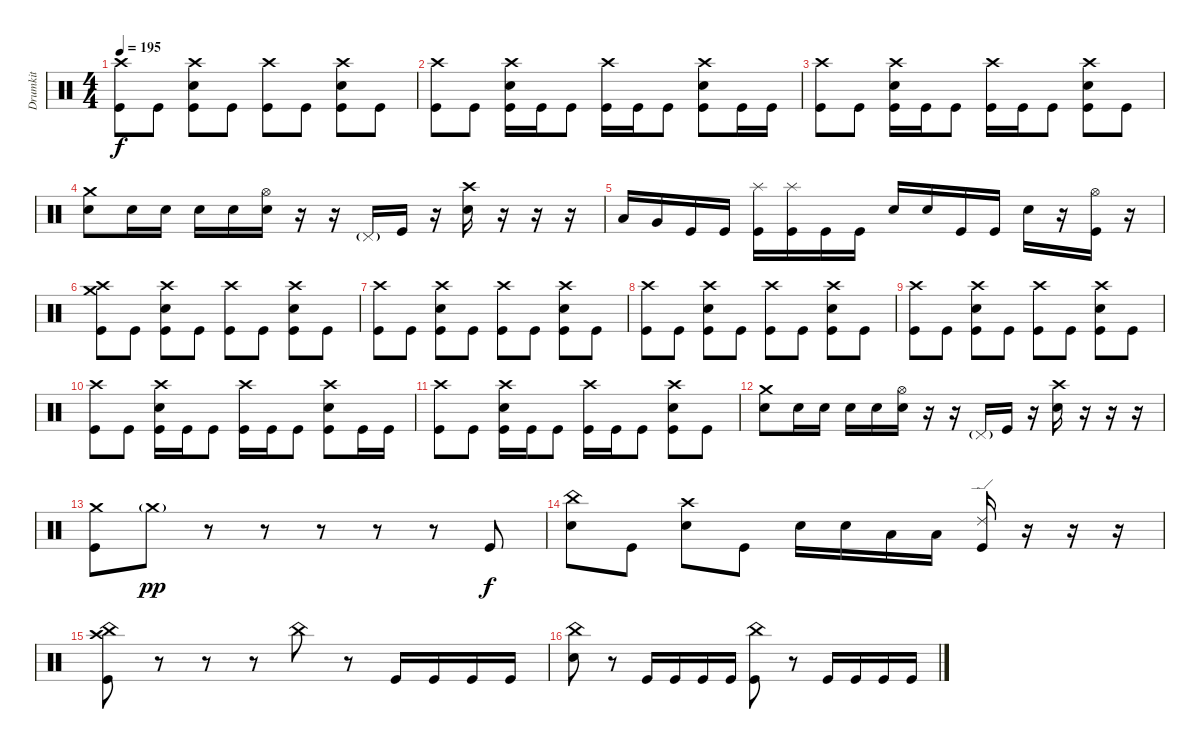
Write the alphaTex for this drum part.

\track ("Drumkit" "Drumkit") {instrument percussion}
\staff {score}
\articulation defaults
\ts (4 4)
\tempo 195
\clef neutral
\ks c
("Crash high (hit)" "Kick (hit)").8{dy f} "Kick (hit)".8 ("Crash high (hit)" "Snare (hit) 2" "Kick (hit)").8 "Kick (hit)".8 ("Crash high (hit)" "Kick (hit)").8 "Kick (hit)".8 ("Crash high (hit)" "Snare (hit) 2" "Kick (hit)").8 "Kick (hit)".8 |
("Crash high (hit)" "Kick (hit)").8 "Kick (hit)".8 ("Crash high (hit)" "Snare (hit) 2" "Kick (hit)").16 "Kick (hit)".16 "Kick (hit)".8 ("Crash high (hit)" "Kick (hit)").16 "Kick (hit)".16 "Kick (hit)".8 ("Crash high (hit)" "Snare (hit) 2" "Kick (hit)").8 "Kick (hit)".16 "Kick (hit)".16 |
("Crash high (hit)" "Kick (hit)").8 "Kick (hit)".8 ("Crash high (hit)" "Snare (hit) 2" "Kick (hit)").16 "Kick (hit)".16 "Kick (hit)".8 ("Crash high (hit)" "Kick (hit)").16 "Kick (hit)".16 "Kick (hit)".8 ("Crash high (hit)" "Snare (hit) 2" "Kick (hit)").8 "Kick (hit)".8 |
("Crash medium (hit)" "Snare (hit) 2").8 "Snare (hit) 2".16 "Snare (hit) 2".16 "Snare (hit) 2".16 "Snare (hit) 2".16 ("Hi-Hat (open)" "Snare (hit) 2").16 r.16 r.16 "Pedal Hi-Hat (hit)"{g}.16 "Kick (hit)".16 r.16 ("Crash high (hit)" "Snare (hit) 2").16 r.16 r.16 r.16 |
"Low Tom (hit)".16 "Very Low Tom (hit)".16 "Kick (hit)".16 "Kick (hit)".16 ("Splash (hit)" "Kick (hit)").16 ("Splash (hit)" "Kick (hit)").16 "Kick (hit)".16 "Kick (hit)".16 "Snare (hit) 2".16 "Snare (hit) 2".16 "Kick (hit)".16 "Kick (hit)".16 "Snare (hit) 2".16 r.16 ("Hi-Hat (open)" "Kick (hit)").16 r.16 |
("Crash medium (hit)" "Crash high (hit)" "Kick (hit)").8 "Kick (hit)".8 ("Crash high (hit)" "Snare (hit) 2" "Kick (hit)").8 "Kick (hit)".8 ("Crash high (hit)" "Kick (hit)").8 "Kick (hit)".8 ("Crash high (hit)" "Snare (hit) 2" "Kick (hit)").8 "Kick (hit)".8 |
("Crash high (hit)" "Kick (hit)").8 "Kick (hit)".8 ("Crash high (hit)" "Snare (hit) 2" "Kick (hit)").8 "Kick (hit)".8 ("Crash high (hit)" "Kick (hit)").8 "Kick (hit)".8 ("Crash high (hit)" "Snare (hit) 2" "Kick (hit)").8 "Kick (hit)".8 |
("Crash high (hit)" "Kick (hit)").8 "Kick (hit)".8 ("Crash high (hit)" "Snare (hit) 2" "Kick (hit)").8 "Kick (hit)".8 ("Crash high (hit)" "Kick (hit)").8 "Kick (hit)".8 ("Crash high (hit)" "Snare (hit) 2" "Kick (hit)").8 "Kick (hit)".8 |
("Crash high (hit)" "Kick (hit)").8 "Kick (hit)".8 ("Crash high (hit)" "Snare (hit) 2" "Kick (hit)").8 "Kick (hit)".8 ("Crash high (hit)" "Kick (hit)").8 "Kick (hit)".8 ("Crash high (hit)" "Snare (hit) 2" "Kick (hit)").8 "Kick (hit)".8 |
("Crash high (hit)" "Kick (hit)").8 "Kick (hit)".8 ("Crash high (hit)" "Snare (hit) 2" "Kick (hit)").16 "Kick (hit)".16 "Kick (hit)".8 ("Crash high (hit)" "Kick (hit)").16 "Kick (hit)".16 "Kick (hit)".8 ("Crash high (hit)" "Snare (hit) 2" "Kick (hit)").8 "Kick (hit)".16 "Kick (hit)".16 |
("Crash high (hit)" "Kick (hit)").8 "Kick (hit)".8 ("Crash high (hit)" "Snare (hit) 2" "Kick (hit)").16 "Kick (hit)".16 "Kick (hit)".8 ("Crash high (hit)" "Kick (hit)").16 "Kick (hit)".16 "Kick (hit)".8 ("Crash high (hit)" "Snare (hit) 2" "Kick (hit)").8 "Kick (hit)".8 |
("Crash medium (hit)" "Snare (hit) 2").8 "Snare (hit) 2".16 "Snare (hit) 2".16 "Snare (hit) 2".16 "Snare (hit) 2".16 ("Hi-Hat (open)" "Snare (hit) 2").16 r.16 r.16 "Pedal Hi-Hat (hit)"{g}.16 "Kick (hit)".16 r.16 ("Crash high (hit)" "Snare (hit) 2").16 r.16 r.16 r.16 |
("Crash medium (hit)" "Kick (hit)").8 "Crash medium (hit)"{g}.8{dy pp} r.8 r.8 r.8 r.8 r.8 "Kick (hit)".8{dy f} |
("China (hit)" "Snare (hit) 2").8 "Kick (hit)".8 ("Crash high (hit)" "Snare (hit) 2").8 "Kick (hit)".8 "Snare (hit) 2".16 "Snare (hit) 2".16 "Low Tom (hit)".16 "Low Tom (hit)".16 ("Ride (edge) 2" "Kick (hit)").16 r.16 r.16 r.16 |
("China (hit)" "Crash high (hit)" "Kick (hit)").8 r.8 r.8 r.8 "China (hit)".8 r.8 "Kick (hit)".16 "Kick (hit)".16 "Kick (hit)".16 "Kick (hit)".16 |
("China (hit)" "Snare (hit) 2").8 r.8 "Kick (hit)".16 "Kick (hit)".16 "Kick (hit)".16 "Kick (hit)".16 ("China (hit)" "Kick (hit)").8 r.8 "Kick (hit)".16 "Kick (hit)".16 "Kick (hit)".16 "Kick (hit)".16
